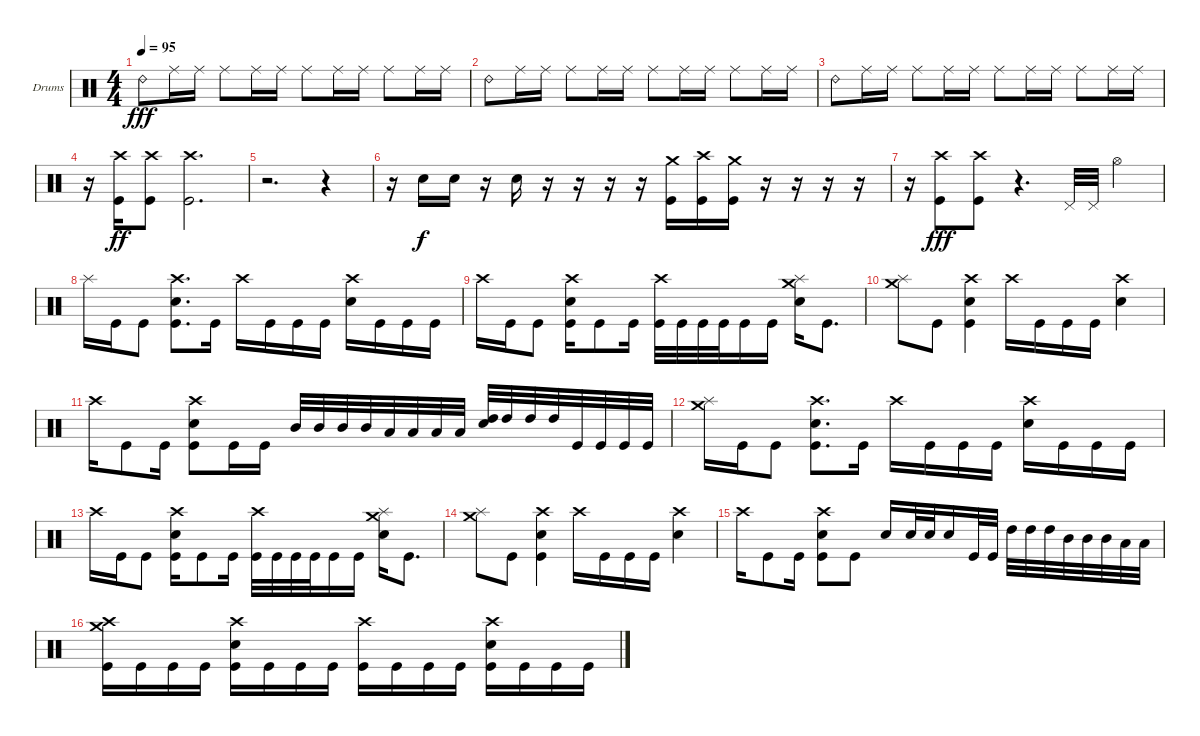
\defaultSystemsLayout 4
\bracketExtendMode groupsimilarinstruments
\firstSystemTrackNameOrientation horizontal
\otherSystemsTrackNameOrientation horizontal
\track ("Drumkit" "Drums") {instrument percussion}
\staff {score}
\articulation defaults
\ts (4 4)
\tempo 95
\clef neutral
\ks c "Ride (bell) 2".8{dy fff} "Ride (middle)".16 "Ride (middle)".16 "Ride (middle)".8 "Ride (middle)".16 "Ride (middle)".16 "Ride (middle)".8 "Ride (middle)".16 "Ride (middle)".16 "Ride (middle)".8 "Ride (middle)".16 "Ride (middle)".16
|
"Ride (bell) 2".8 "Ride (middle)".16 "Ride (middle)".16 "Ride (middle)".8 "Ride (middle)".16 "Ride (middle)".16 "Ride (middle)".8 "Ride (middle)".16 "Ride (middle)".16 "Ride (middle)".8 "Ride (middle)".16 "Ride (middle)".16 |
"Ride (bell) 2".8 "Ride (middle)".16 "Ride (middle)".16 "Ride (middle)".8 "Ride (middle)".16 "Ride (middle)".16 "Ride (middle)".8 "Ride (middle)".16 "Ride (middle)".16 "Ride (middle)".8 "Ride (middle)".16 "Ride (middle)".16 |
r.16 ("Crash high (hit)" "Kick (hit)").16{dy ff} ("Crash high (hit)" "Kick (hit)").8 ("Crash high (hit)" "Kick (hit)").2{d} |
r.2{d} r.4 |
r.16 "Snare (hit) 2".16{dy f} "Snare (hit) 2".16 r.16 "Snare (hit) 2".16 r.16 r.16 r.16 r.16 ("Crash medium (hit)" "Kick (hit)").16 ("Crash high (hit)" "Kick (hit)").16 ("Crash medium (hit)" "Kick (hit)").16 r.16 r.16 r.16 r.16 |
r.16 ("Crash high (hit)" "Kick (hit)").8{dy fff} ("Crash high (hit)" "Kick (hit)").8 r.4{d} "Pedal Hi-Hat (hit)".32 "Pedal Hi-Hat (hit)".32 "Hi-Hat (open)".4 |
"Splash (hit)".16 "Kick (hit)".16 "Kick (hit)".8 ("Crash high (hit)" "Snare (hit) 2" "Kick (hit)").8{d} "Kick (hit)".16 "Crash high (hit)".16 "Kick (hit)".16 "Kick (hit)".16 "Kick (hit)".16 ("Crash high (hit)" "Snare (hit) 2").16 "Kick (hit)".16 "Kick (hit)".16 "Kick (hit)".16 |
"Crash high (hit)".16 "Kick (hit)".16 "Kick (hit)".8 ("Crash high (hit)" "Snare (hit) 2" "Kick (hit)").16 "Kick (hit)".8 "Kick (hit)".16 ("Crash high (hit)" "Kick (hit)").32 "Kick (hit)".32 "Kick (hit)".32 "Kick (hit)".32 "Kick (hit)".16 "Kick (hit)".16 ("Crash medium (hit)" "Splash (hit)" "Snare (hit) 2").16 "Kick (hit)".8{d} |
("Splash (hit)" "Crash medium (hit)").8 "Kick (hit)".8 ("Crash high (hit)" "Snare (hit) 2" "Kick (hit)").4 "Crash high (hit)".16 "Kick (hit)".16 "Kick (hit)".16 "Kick (hit)".16 ("Crash high (hit)" "Snare (hit) 2").4 |
"Crash high (hit)".16 "Kick (hit)".8 "Kick (hit)".16 ("Crash high (hit)" "Kick (hit)" "Snare (hit) 2").8 "Kick (hit)".16 "Kick (hit)".16 "Mid Tom (hit)".32 "Mid Tom (hit)".32 "Mid Tom (hit)".32 "Mid Tom (hit)".32 "Low Tom (hit)".32 "Low Tom (hit)".32 "Low Tom (hit)".32 "Low Tom (hit)".32 ("Snare (hit) 2" "High Tom (hit)").32 "High Tom (hit)".32 "High Tom (hit)".32 "High Tom (hit)".32 "Kick (hit)".32 "Kick (hit)".32 "Kick (hit)".32 "Kick (hit)".32 |
("Splash (hit)" "Crash medium (hit)").16 "Kick (hit)".16 "Kick (hit)".8 ("Crash high (hit)" "Snare (hit) 2" "Kick (hit)").8{d} "Kick (hit)".16 "Crash high (hit)".16 "Kick (hit)".16 "Kick (hit)".16 "Kick (hit)".16 ("Crash high (hit)" "Snare (hit) 2").16 "Kick (hit)".16 "Kick (hit)".16 "Kick (hit)".16 |
"Crash high (hit)".16 "Kick (hit)".16 "Kick (hit)".8 ("Crash high (hit)" "Snare (hit) 2" "Kick (hit)").16 "Kick (hit)".8 "Kick (hit)".16 ("Crash high (hit)" "Kick (hit)").32 "Kick (hit)".32 "Kick (hit)".32 "Kick (hit)".32 "Kick (hit)".16 "Kick (hit)".16 ("Crash medium (hit)" "Splash (hit)" "Snare (hit) 2").16 "Kick (hit)".8{d} |
("Splash (hit)" "Crash medium (hit)").8 "Kick (hit)".8 ("Crash high (hit)" "Snare (hit) 2" "Kick (hit)").4 "Crash high (hit)".16 "Kick (hit)".16 "Kick (hit)".16 "Kick (hit)".16 ("Crash high (hit)" "Snare (hit) 2").4 |
"Crash high (hit)".16 "Kick (hit)".8 "Kick (hit)".16 ("Crash high (hit)" "Kick (hit)" "Snare (hit) 2").8 "Kick (hit)".8 "Snare (hit) 2".16 "Snare (hit) 2".32 "Snare (hit) 2".32 "Snare (hit) 2".16 "Kick (hit)".32 "Kick (hit)".32 "High Tom (hit)".32 "High Tom (hit)".32 "High Tom (hit)".32 "Mid Tom (hit)".32 "Mid Tom (hit)".32 "Mid Tom (hit)".32 "Low Tom (hit)".32 "Low Tom (hit)".32 |
("Crash high (hit)" "Crash medium (hit)" "Kick (hit)").16 "Kick (hit)".16 "Kick (hit)".16 "Kick (hit)".16 ("Crash high (hit)" "Snare (hit) 2" "Kick (hit)").16 "Kick (hit)".16 "Kick (hit)".16 "Kick (hit)".16 ("Crash high (hit)" "Kick (hit)").16 "Kick (hit)".16 "Kick (hit)".16 "Kick (hit)".16 ("Crash high (hit)" "Snare (hit) 2" "Kick (hit)").16 "Kick (hit)".16 "Kick (hit)".16 "Kick (hit)".16
